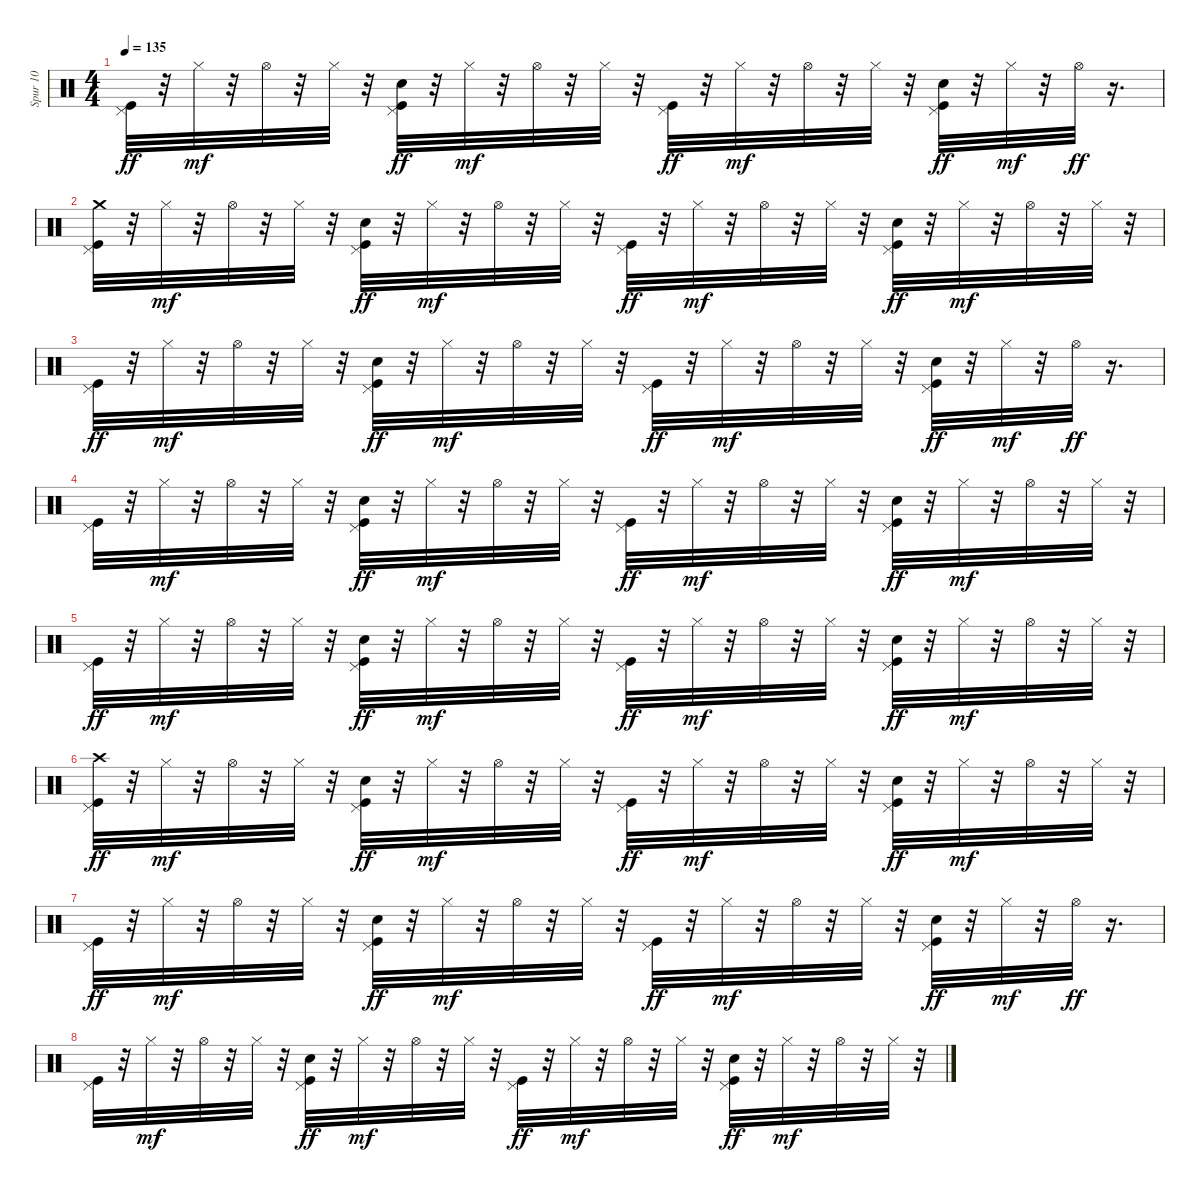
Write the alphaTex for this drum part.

\track ("Spur 10" "Spur 10") {instrument percussion}
\staff {score}
\articulation defaults
\ts (4 4)
\tempo 135
\clef neutral
\ks c
("Kick (hit)" "Pedal Hi-Hat (hit)").32{dy ff} r.32 "Hi-Hat (closed)".32{dy mf} r.32 "Hi-Hat (open)".32 r.32 "Hi-Hat (closed)".32 r.32 ("Kick (hit)" "Hand Clap (hit)" "Pedal Hi-Hat (hit)").32{dy ff} r.32 "Hi-Hat (closed)".32{dy mf} r.32 "Hi-Hat (open)".32 r.32 "Hi-Hat (closed)".32 r.32 ("Kick (hit)" "Pedal Hi-Hat (hit)").32{dy ff} r.32 "Hi-Hat (closed)".32{dy mf} r.32 "Hi-Hat (open)".32 r.32 "Hi-Hat (closed)".32 r.32 ("Kick (hit)" "Hand Clap (hit)" "Pedal Hi-Hat (hit)").32{dy ff} r.32 "Hi-Hat (closed)".32{dy mf} r.32 "Hi-Hat (open)".32{dy ff} r.16{d} |
("Crash medium (hit)" "Kick (hit)" "Pedal Hi-Hat (hit)").32 r.32 "Hi-Hat (closed)".32{dy mf} r.32 "Hi-Hat (open)".32 r.32 "Hi-Hat (closed)".32 r.32 ("Kick (hit)" "Hand Clap (hit)" "Pedal Hi-Hat (hit)").32{dy ff} r.32 "Hi-Hat (closed)".32{dy mf} r.32 "Hi-Hat (open)".32 r.32 "Hi-Hat (closed)".32 r.32 ("Kick (hit)" "Pedal Hi-Hat (hit)").32{dy ff} r.32 "Hi-Hat (closed)".32{dy mf} r.32 "Hi-Hat (open)".32 r.32 "Hi-Hat (closed)".32 r.32 ("Kick (hit)" "Hand Clap (hit)" "Pedal Hi-Hat (hit)").32{dy ff} r.32 "Hi-Hat (closed)".32{dy mf} r.32 "Hi-Hat (open)".32 r.32 "Hi-Hat (closed)".32 r.32 |
("Kick (hit)" "Pedal Hi-Hat (hit)").32{dy ff} r.32 "Hi-Hat (closed)".32{dy mf} r.32 "Hi-Hat (open)".32 r.32 "Hi-Hat (closed)".32 r.32 ("Kick (hit)" "Hand Clap (hit)" "Pedal Hi-Hat (hit)").32{dy ff} r.32 "Hi-Hat (closed)".32{dy mf} r.32 "Hi-Hat (open)".32 r.32 "Hi-Hat (closed)".32 r.32 ("Kick (hit)" "Pedal Hi-Hat (hit)").32{dy ff} r.32 "Hi-Hat (closed)".32{dy mf} r.32 "Hi-Hat (open)".32 r.32 "Hi-Hat (closed)".32 r.32 ("Kick (hit)" "Hand Clap (hit)" "Pedal Hi-Hat (hit)").32{dy ff} r.32 "Hi-Hat (closed)".32{dy mf} r.32 "Hi-Hat (open)".32{dy ff} r.16{d} |
("Kick (hit)" "Pedal Hi-Hat (hit)").32 r.32 "Hi-Hat (closed)".32{dy mf} r.32 "Hi-Hat (open)".32 r.32 "Hi-Hat (closed)".32 r.32 ("Kick (hit)" "Hand Clap (hit)" "Pedal Hi-Hat (hit)").32{dy ff} r.32 "Hi-Hat (closed)".32{dy mf} r.32 "Hi-Hat (open)".32 r.32 "Hi-Hat (closed)".32 r.32 ("Kick (hit)" "Pedal Hi-Hat (hit)").32{dy ff} r.32 "Hi-Hat (closed)".32{dy mf} r.32 "Hi-Hat (open)".32 r.32 "Hi-Hat (closed)".32 r.32 ("Kick (hit)" "Hand Clap (hit)" "Pedal Hi-Hat (hit)").32{dy ff} r.32 "Hi-Hat (closed)".32{dy mf} r.32 "Hi-Hat (open)".32 r.32 "Hi-Hat (closed)".32 r.32 |
("Kick (hit)" "Pedal Hi-Hat (hit)").32{dy ff} r.32 "Hi-Hat (closed)".32{dy mf} r.32 "Hi-Hat (open)".32 r.32 "Hi-Hat (closed)".32 r.32 ("Kick (hit)" "Hand Clap (hit)" "Pedal Hi-Hat (hit)").32{dy ff} r.32 "Hi-Hat (closed)".32{dy mf} r.32 "Hi-Hat (open)".32 r.32 "Hi-Hat (closed)".32 r.32 ("Kick (hit)" "Pedal Hi-Hat (hit)").32{dy ff} r.32 "Hi-Hat (closed)".32{dy mf} r.32 "Hi-Hat (open)".32 r.32 "Hi-Hat (closed)".32 r.32 ("Kick (hit)" "Hand Clap (hit)" "Pedal Hi-Hat (hit)").32{dy ff} r.32 "Hi-Hat (closed)".32{dy mf} r.32 "Hi-Hat (open)".32 r.32 "Hi-Hat (closed)".32 r.32 |
("Crash high (hit)" "Kick (hit)" "Pedal Hi-Hat (hit)").32{dy ff} r.32 "Hi-Hat (closed)".32{dy mf} r.32 "Hi-Hat (open)".32 r.32 "Hi-Hat (closed)".32 r.32 ("Kick (hit)" "Hand Clap (hit)" "Pedal Hi-Hat (hit)").32{dy ff} r.32 "Hi-Hat (closed)".32{dy mf} r.32 "Hi-Hat (open)".32 r.32 "Hi-Hat (closed)".32 r.32 ("Kick (hit)" "Pedal Hi-Hat (hit)").32{dy ff} r.32 "Hi-Hat (closed)".32{dy mf} r.32 "Hi-Hat (open)".32 r.32 "Hi-Hat (closed)".32 r.32 ("Kick (hit)" "Hand Clap (hit)" "Pedal Hi-Hat (hit)").32{dy ff} r.32 "Hi-Hat (closed)".32{dy mf} r.32 "Hi-Hat (open)".32 r.32 "Hi-Hat (closed)".32 r.32 |
("Kick (hit)" "Pedal Hi-Hat (hit)").32{dy ff} r.32 "Hi-Hat (closed)".32{dy mf} r.32 "Hi-Hat (open)".32 r.32 "Hi-Hat (closed)".32 r.32 ("Kick (hit)" "Hand Clap (hit)" "Pedal Hi-Hat (hit)").32{dy ff} r.32 "Hi-Hat (closed)".32{dy mf} r.32 "Hi-Hat (open)".32 r.32 "Hi-Hat (closed)".32 r.32 ("Kick (hit)" "Pedal Hi-Hat (hit)").32{dy ff} r.32 "Hi-Hat (closed)".32{dy mf} r.32 "Hi-Hat (open)".32 r.32 "Hi-Hat (closed)".32 r.32 ("Kick (hit)" "Hand Clap (hit)" "Pedal Hi-Hat (hit)").32{dy ff} r.32 "Hi-Hat (closed)".32{dy mf} r.32 "Hi-Hat (open)".32{dy ff} r.16{d} |
("Kick (hit)" "Pedal Hi-Hat (hit)").32 r.32 "Hi-Hat (closed)".32{dy mf} r.32 "Hi-Hat (open)".32 r.32 "Hi-Hat (closed)".32 r.32 ("Kick (hit)" "Hand Clap (hit)" "Pedal Hi-Hat (hit)").32{dy ff} r.32 "Hi-Hat (closed)".32{dy mf} r.32 "Hi-Hat (open)".32 r.32 "Hi-Hat (closed)".32 r.32 ("Kick (hit)" "Pedal Hi-Hat (hit)").32{dy ff} r.32 "Hi-Hat (closed)".32{dy mf} r.32 "Hi-Hat (open)".32 r.32 "Hi-Hat (closed)".32 r.32 ("Kick (hit)" "Hand Clap (hit)" "Pedal Hi-Hat (hit)").32{dy ff} r.32 "Hi-Hat (closed)".32{dy mf} r.32 "Hi-Hat (open)".32 r.32 "Hi-Hat (closed)".32 r.32
